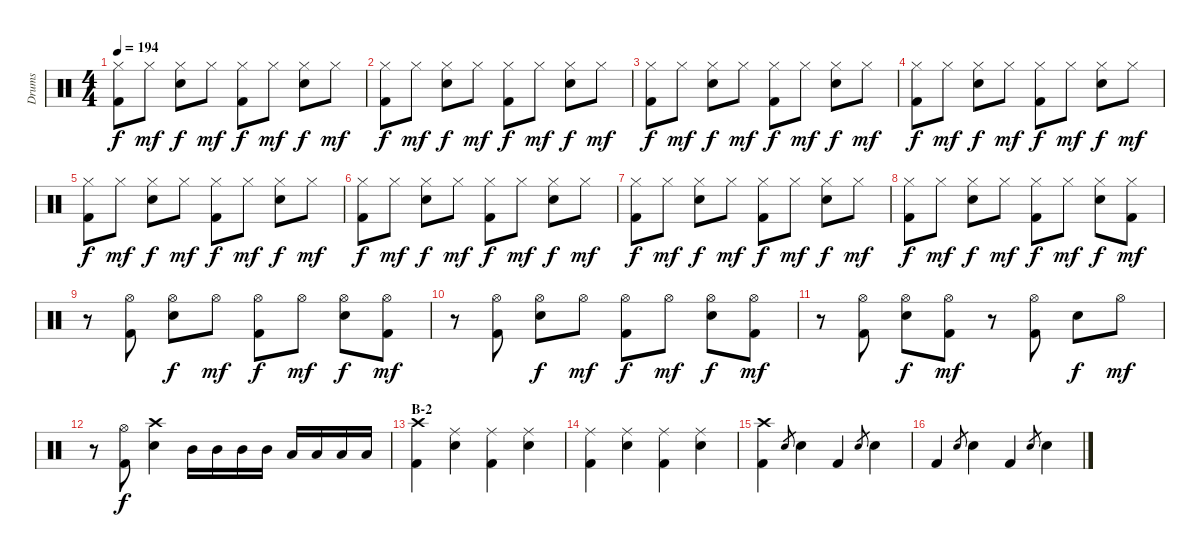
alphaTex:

\track ("Drums" "Drums") {instrument percussion}
\staff {score}
\articulation defaults
\ts (4 4)
\tempo 194
\clef neutral
\ks c
("Hi-Hat (closed)" "Kick (hit) 2").8{dy f} "Hi-Hat (closed)".8{dy mf} ("Hi-Hat (closed)" "Electric Snare (hit)").8{dy f} "Hi-Hat (closed)".8{dy mf} ("Hi-Hat (closed)" "Kick (hit) 2").8{dy f} "Hi-Hat (closed)".8{dy mf} ("Hi-Hat (closed)" "Electric Snare (hit)").8{dy f} "Hi-Hat (closed)".8{dy mf} |
("Hi-Hat (closed)" "Kick (hit) 2").8{dy f} "Hi-Hat (closed)".8{dy mf} ("Hi-Hat (closed)" "Electric Snare (hit)").8{dy f} "Hi-Hat (closed)".8{dy mf} ("Hi-Hat (closed)" "Kick (hit) 2").8{dy f} "Hi-Hat (closed)".8{dy mf} ("Hi-Hat (closed)" "Electric Snare (hit)").8{dy f} "Hi-Hat (closed)".8{dy mf} |
("Hi-Hat (closed)" "Kick (hit) 2").8{dy f} "Hi-Hat (closed)".8{dy mf} ("Hi-Hat (closed)" "Electric Snare (hit)").8{dy f} "Hi-Hat (closed)".8{dy mf} ("Hi-Hat (closed)" "Kick (hit) 2").8{dy f} "Hi-Hat (closed)".8{dy mf} ("Hi-Hat (closed)" "Electric Snare (hit)").8{dy f} "Hi-Hat (closed)".8{dy mf} |
("Hi-Hat (closed)" "Kick (hit) 2").8{dy f} "Hi-Hat (closed)".8{dy mf} ("Hi-Hat (closed)" "Electric Snare (hit)").8{dy f} "Hi-Hat (closed)".8{dy mf} ("Hi-Hat (closed)" "Kick (hit) 2").8{dy f} "Hi-Hat (closed)".8{dy mf} ("Hi-Hat (closed)" "Electric Snare (hit)").8{dy f} "Hi-Hat (closed)".8{dy mf} |
("Hi-Hat (closed)" "Kick (hit) 2").8{dy f} "Hi-Hat (closed)".8{dy mf} ("Hi-Hat (closed)" "Electric Snare (hit)").8{dy f} "Hi-Hat (closed)".8{dy mf} ("Hi-Hat (closed)" "Kick (hit) 2").8{dy f} "Hi-Hat (closed)".8{dy mf} ("Hi-Hat (closed)" "Electric Snare (hit)").8{dy f} "Hi-Hat (closed)".8{dy mf} |
("Hi-Hat (closed)" "Kick (hit) 2").8{dy f} "Hi-Hat (closed)".8{dy mf} ("Hi-Hat (closed)" "Electric Snare (hit)").8{dy f} "Hi-Hat (closed)".8{dy mf} ("Hi-Hat (closed)" "Kick (hit) 2").8{dy f} "Hi-Hat (closed)".8{dy mf} ("Hi-Hat (closed)" "Electric Snare (hit)").8{dy f} "Hi-Hat (closed)".8{dy mf} |
("Hi-Hat (closed)" "Kick (hit) 2").8{dy f} "Hi-Hat (closed)".8{dy mf} ("Hi-Hat (closed)" "Electric Snare (hit)").8{dy f} "Hi-Hat (closed)".8{dy mf} ("Hi-Hat (closed)" "Kick (hit) 2").8{dy f} "Hi-Hat (closed)".8{dy mf} ("Hi-Hat (closed)" "Electric Snare (hit)").8{dy f} "Hi-Hat (closed)".8{dy mf} |
("Hi-Hat (closed)" "Kick (hit) 2").8{dy f} "Hi-Hat (closed)".8{dy mf} ("Hi-Hat (closed)" "Electric Snare (hit)").8{dy f} "Hi-Hat (closed)".8{dy mf} ("Hi-Hat (closed)" "Kick (hit) 2").8{dy f} "Hi-Hat (closed)".8{dy mf} ("Hi-Hat (closed)" "Electric Snare (hit)").8{dy f} ("Hi-Hat (closed)" "Kick (hit) 2").8{dy mf} |
r.8 ("Hi-Hat (open)" "Kick (hit) 2").8 ("Hi-Hat (open)" "Electric Snare (hit)").8{dy f} "Hi-Hat (open)".8{dy mf} ("Hi-Hat (open)" "Kick (hit) 2").8{dy f} "Hi-Hat (open)".8{dy mf} ("Hi-Hat (open)" "Electric Snare (hit)").8{dy f} ("Hi-Hat (open)" "Kick (hit) 2").8{dy mf} |
r.8 ("Hi-Hat (open)" "Kick (hit) 2").8 ("Hi-Hat (open)" "Electric Snare (hit)").8{dy f} "Hi-Hat (open)".8{dy mf} ("Hi-Hat (open)" "Kick (hit) 2").8{dy f} "Hi-Hat (open)".8{dy mf} ("Hi-Hat (open)" "Electric Snare (hit)").8{dy f} ("Hi-Hat (open)" "Kick (hit) 2").8{dy mf} |
r.8 ("Hi-Hat (open)" "Kick (hit) 2").8 ("Hi-Hat (open)" "Electric Snare (hit)").8{dy f} ("Hi-Hat (open)" "Kick (hit) 2").8{dy mf} r.8 ("Hi-Hat (open)" "Kick (hit) 2").8 "Electric Snare (hit)".8{dy f} "Hi-Hat (open)".8{dy mf} |
r.8 ("Hi-Hat (open)" "Kick (hit) 2").8{dy f} ("Crash high (hit)" "Electric Snare (hit)").4 "Mid Tom (hit)".16 "Mid Tom (hit)".16 "Mid Tom (hit)".16 "Mid Tom (hit)".16 "Low Tom (hit)".16 "Low Tom (hit)".16 "Low Tom (hit)".16 "Low Tom (hit)".16 |
\section ("" "B-2")
("Crash high (hit)" "Kick (hit) 2").4 ("Ride (middle)" "Electric Snare (hit)").4 ("Ride (middle)" "Kick (hit) 2").4 ("Ride (middle)" "Electric Snare (hit)").4 |
("Ride (middle)" "Kick (hit) 2").4 ("Ride (middle)" "Electric Snare (hit)").4 ("Ride (middle)" "Kick (hit) 2").4 ("Ride (middle)" "Electric Snare (hit)").4 |
("Crash high (hit)" "Kick (hit) 2").4 "Electric Snare (hit)".8{gr} "Electric Snare (hit)".4 "Kick (hit) 2".4 "Electric Snare (hit)".8{gr} "Electric Snare (hit)".4 |
"Kick (hit) 2".4 "Electric Snare (hit)".8{gr} "Electric Snare (hit)".4 "Kick (hit) 2".4 "Electric Snare (hit)".8{gr} "Electric Snare (hit)".4
